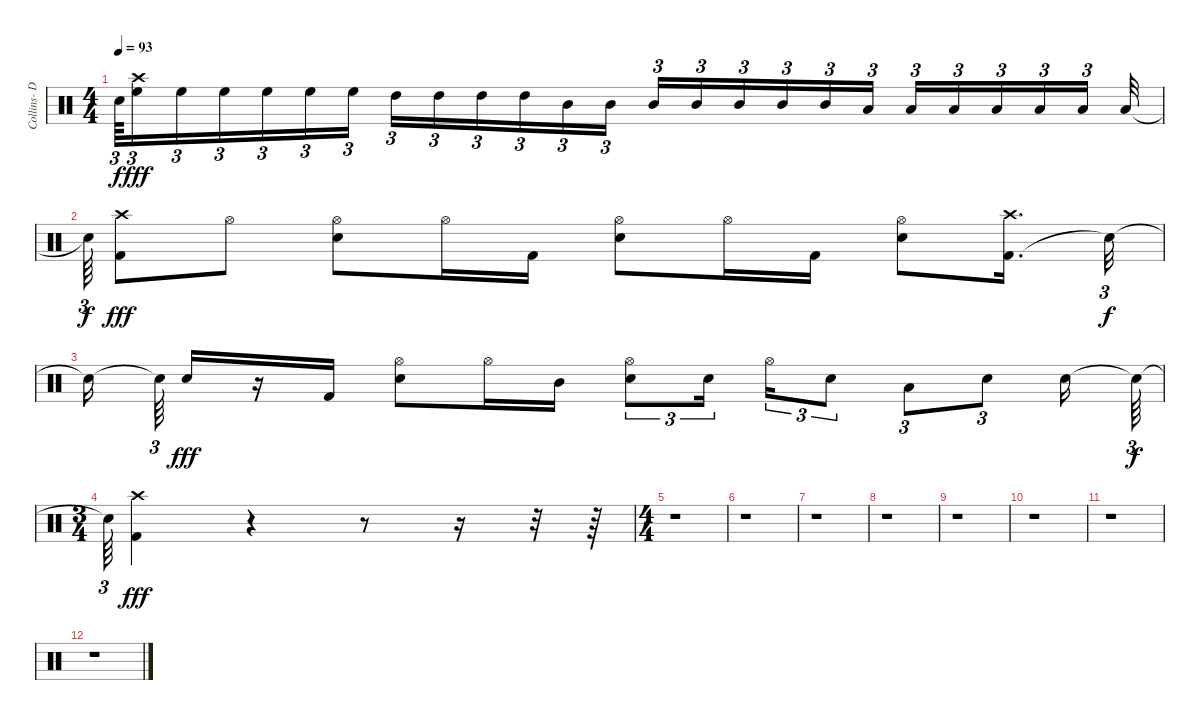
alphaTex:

\track ("Collins- Drums" "Collins- D") {instrument percussion}
\staff {score}
\articulation defaults
\ts (4 4)
\tempo 93
\clef neutral
\ks c "Snare (hit)"{t}.64{tu (3 2) dy f}
("Crash high (hit)" "High Floor Tom (hit)").16{tu (3 2) dy fff} "High Floor Tom (hit)".16{tu (3 2)} "High Floor Tom (hit)".16{tu (3 2)} "High Floor Tom (hit)".16{tu (3 2)} "High Floor Tom (hit)".16{tu (3 2)} "High Floor Tom (hit)".16{tu (3 2)} "High Tom (hit)".16{tu (3 2)} "High Tom (hit)".16{tu (3 2)} "High Tom (hit)".16{tu (3 2)} "High Tom (hit)".16{tu (3 2)} "Mid Tom (hit)".16{tu (3 2)} "Mid Tom (hit)".16{tu (3 2)} "Mid Tom (hit)".16{tu (3 2)} "Mid Tom (hit)".16{tu (3 2)} "Mid Tom (hit)".16{tu (3 2)} "Mid Tom (hit)".16{tu (3 2)} "Mid Tom (hit)".16{tu (3 2)} "Low Tom (hit)".16{tu (3 2)} "Low Floor Tom (hit)".16{tu (3 2)} "Low Tom (hit)".16{tu (3 2)} "Low Tom (hit)".16{tu (3 2)} "Low Tom (hit)".16{tu (3 2)} "Low Tom (hit)".16{tu (3 2) beam splitsecondary} "Low Tom (hit)".32 |
"Snare (hit)"{t}.64{tu (3 2) dy f} ("Crash high (hit)" "Kick (hit) 2").8{dy fff} "Hi-Hat (open)".8 ("Hi-Hat (open)" "Electric Snare (hit)").8 "Hi-Hat (open)".16 "Kick (hit) 2".16 ("Hi-Hat (open)" "Electric Snare (hit)").8 "Hi-Hat (open)".16 "Kick (hit) 2".16 ("Hi-Hat (open)" "Electric Snare (hit)").8 ("Kick (hit) 2" "Crash high (hit)").16{d} "Snare (hit)"{t}.32{tu (3 2) dy f} |
"Snare (hit)"{t}.16{beam splitsecondary} "Snare (hit)"{t}.64{tu (3 2)} "Electric Snare (hit)".16{dy fff} r.16 "Kick (hit) 2".16 ("Hi-Hat (open)" "Electric Snare (hit)").8 "Hi-Hat (open)".16 "Mid Tom (hit)".16 ("Electric Snare (hit)" "Hi-Hat (open)").8{tu (3 2)} "Electric Snare (hit)".16{tu (3 2) beam splitsecondary} "Hi-Hat (open)".16{tu (3 2)} "Electric Snare (hit)".8{tu (3 2)} "Low Tom (hit)".8{tu (3 2)} "Electric Snare (hit)".8{tu (3 2)} "Electric Snare (hit)".16 "Snare (hit)"{t}.64{tu (3 2) dy f} |
\ts (3 4)
"Snare (hit)"{t}.64{tu (3 2)} ("Crash high (hit)" "Kick (hit) 2").4{dy fff} r.4 r.8 r.16 r.32 r.64 |
\ts (4 4)
r.1 |
r.1 |
r.1 |
r.1 |
r.1 |
r.1 |
r.1 |
r.1
